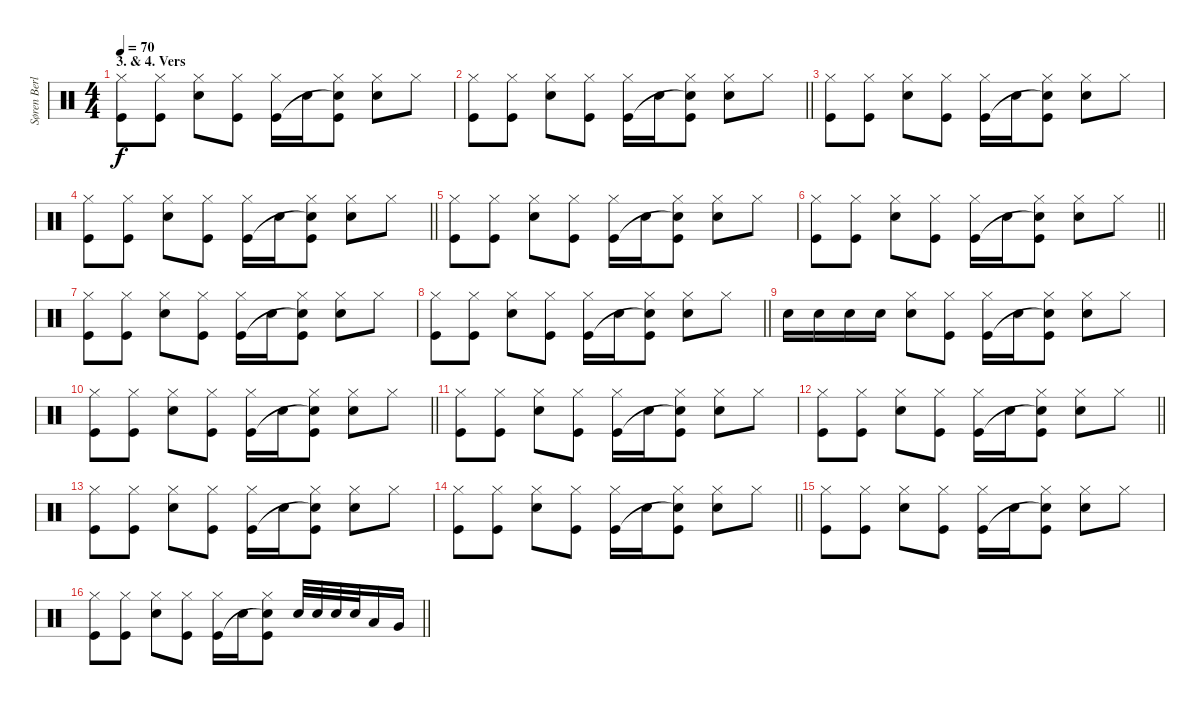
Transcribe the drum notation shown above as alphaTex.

\track ("Søren Berlev" "Søren Berl") {instrument percussion}
\staff {score}
\articulation defaults
\ts (4 4)
\section ("" "3. & 4. Vers")
\tempo 70
\clef neutral
\ks c
("Hi-Hat (closed)" "Kick (hit)").8{dy f} ("Hi-Hat (closed)" "Kick (hit)").8 ("Hi-Hat (closed)" "Snare (hit) 2").8 ("Hi-Hat (closed)" "Kick (hit)").8 ("Hi-Hat (closed)" "Kick (hit)").16 "Snare (hit) 2".16 ("Hi-Hat (closed)" "Snare (hit)"{t} "Kick (hit)").8 ("Hi-Hat (closed)" "Snare (hit) 2").8 "Hi-Hat (closed)".8 |
\barLineRight lightlight
("Hi-Hat (closed)" "Kick (hit)").8 ("Hi-Hat (closed)" "Kick (hit)").8 ("Hi-Hat (closed)" "Snare (hit) 2").8 ("Hi-Hat (closed)" "Kick (hit)").8 ("Hi-Hat (closed)" "Kick (hit)").16 "Snare (hit) 2".16 ("Hi-Hat (closed)" "Snare (hit)"{t} "Kick (hit)").8 ("Hi-Hat (closed)" "Snare (hit) 2").8 "Hi-Hat (closed)".8 |
("Hi-Hat (closed)" "Kick (hit)").8 ("Hi-Hat (closed)" "Kick (hit)").8 ("Hi-Hat (closed)" "Snare (hit) 2").8 ("Hi-Hat (closed)" "Kick (hit)").8 ("Hi-Hat (closed)" "Kick (hit)").16 "Snare (hit) 2".16 ("Hi-Hat (closed)" "Snare (hit)"{t} "Kick (hit)").8 ("Hi-Hat (closed)" "Snare (hit) 2").8 "Hi-Hat (closed)".8 |
\barLineRight lightlight
("Hi-Hat (closed)" "Kick (hit)").8 ("Hi-Hat (closed)" "Kick (hit)").8 ("Hi-Hat (closed)" "Snare (hit) 2").8 ("Hi-Hat (closed)" "Kick (hit)").8 ("Hi-Hat (closed)" "Kick (hit)").16 "Snare (hit) 2".16 ("Hi-Hat (closed)" "Snare (hit)"{t} "Kick (hit)").8 ("Hi-Hat (closed)" "Snare (hit) 2").8 "Hi-Hat (closed)".8 |
("Hi-Hat (closed)" "Kick (hit)").8 ("Hi-Hat (closed)" "Kick (hit)").8 ("Hi-Hat (closed)" "Snare (hit) 2").8 ("Hi-Hat (closed)" "Kick (hit)").8 ("Hi-Hat (closed)" "Kick (hit)").16 "Snare (hit) 2".16 ("Hi-Hat (closed)" "Snare (hit)"{t} "Kick (hit)").8 ("Hi-Hat (closed)" "Snare (hit) 2").8 "Hi-Hat (closed)".8 |
\barLineRight lightlight
("Hi-Hat (closed)" "Kick (hit)").8 ("Hi-Hat (closed)" "Kick (hit)").8 ("Hi-Hat (closed)" "Snare (hit) 2").8 ("Hi-Hat (closed)" "Kick (hit)").8 ("Hi-Hat (closed)" "Kick (hit)").16 "Snare (hit) 2".16 ("Hi-Hat (closed)" "Snare (hit)"{t} "Kick (hit)").8 ("Hi-Hat (closed)" "Snare (hit) 2").8 "Hi-Hat (closed)".8 |
("Hi-Hat (closed)" "Kick (hit)").8 ("Hi-Hat (closed)" "Kick (hit)").8 ("Hi-Hat (closed)" "Snare (hit) 2").8 ("Hi-Hat (closed)" "Kick (hit)").8 ("Hi-Hat (closed)" "Kick (hit)").16 "Snare (hit) 2".16 ("Hi-Hat (closed)" "Snare (hit)"{t} "Kick (hit)").8 ("Hi-Hat (closed)" "Snare (hit) 2").8 "Hi-Hat (closed)".8 |
\barLineRight lightlight
("Hi-Hat (closed)" "Kick (hit)").8 ("Hi-Hat (closed)" "Kick (hit)").8 ("Hi-Hat (closed)" "Snare (hit) 2").8 ("Hi-Hat (closed)" "Kick (hit)").8 ("Hi-Hat (closed)" "Kick (hit)").16 "Snare (hit) 2".16 ("Hi-Hat (closed)" "Snare (hit)"{t} "Kick (hit)").8 ("Hi-Hat (closed)" "Snare (hit) 2").8 "Hi-Hat (closed)".8 |
"Snare (hit) 2".16 "Snare (hit) 2".16 "Snare (hit) 2".16 "Snare (hit) 2".16 ("Hi-Hat (closed)" "Snare (hit) 2").8 ("Hi-Hat (closed)" "Kick (hit)").8 ("Hi-Hat (closed)" "Kick (hit)").16 "Snare (hit) 2".16 ("Hi-Hat (closed)" "Snare (hit)"{t} "Kick (hit)").8 ("Hi-Hat (closed)" "Snare (hit) 2").8 "Hi-Hat (closed)".8 |
\barLineRight lightlight
("Hi-Hat (closed)" "Kick (hit)").8 ("Hi-Hat (closed)" "Kick (hit)").8 ("Hi-Hat (closed)" "Snare (hit) 2").8 ("Hi-Hat (closed)" "Kick (hit)").8 ("Hi-Hat (closed)" "Kick (hit)").16 "Snare (hit) 2".16 ("Hi-Hat (closed)" "Snare (hit)"{t} "Kick (hit)").8 ("Hi-Hat (closed)" "Snare (hit) 2").8 "Hi-Hat (closed)".8 |
("Hi-Hat (closed)" "Kick (hit)").8 ("Hi-Hat (closed)" "Kick (hit)").8 ("Hi-Hat (closed)" "Snare (hit) 2").8 ("Hi-Hat (closed)" "Kick (hit)").8 ("Hi-Hat (closed)" "Kick (hit)").16 "Snare (hit) 2".16 ("Hi-Hat (closed)" "Snare (hit)"{t} "Kick (hit)").8 ("Hi-Hat (closed)" "Snare (hit) 2").8 "Hi-Hat (closed)".8 |
\barLineRight lightlight
("Hi-Hat (closed)" "Kick (hit)").8 ("Hi-Hat (closed)" "Kick (hit)").8 ("Hi-Hat (closed)" "Snare (hit) 2").8 ("Hi-Hat (closed)" "Kick (hit)").8 ("Hi-Hat (closed)" "Kick (hit)").16 "Snare (hit) 2".16 ("Hi-Hat (closed)" "Snare (hit)"{t} "Kick (hit)").8 ("Hi-Hat (closed)" "Snare (hit) 2").8 "Hi-Hat (closed)".8 |
("Hi-Hat (closed)" "Kick (hit)").8 ("Hi-Hat (closed)" "Kick (hit)").8 ("Hi-Hat (closed)" "Snare (hit) 2").8 ("Hi-Hat (closed)" "Kick (hit)").8 ("Hi-Hat (closed)" "Kick (hit)").16 "Snare (hit) 2".16 ("Hi-Hat (closed)" "Snare (hit)"{t} "Kick (hit)").8 ("Hi-Hat (closed)" "Snare (hit) 2").8 "Hi-Hat (closed)".8 |
\barLineRight lightlight
("Hi-Hat (closed)" "Kick (hit)").8 ("Hi-Hat (closed)" "Kick (hit)").8 ("Hi-Hat (closed)" "Snare (hit) 2").8 ("Hi-Hat (closed)" "Kick (hit)").8 ("Hi-Hat (closed)" "Kick (hit)").16 "Snare (hit) 2".16 ("Hi-Hat (closed)" "Snare (hit)"{t} "Kick (hit)").8 ("Hi-Hat (closed)" "Snare (hit) 2").8 "Hi-Hat (closed)".8 |
("Hi-Hat (closed)" "Kick (hit)").8 ("Hi-Hat (closed)" "Kick (hit)").8 ("Hi-Hat (closed)" "Snare (hit) 2").8 ("Hi-Hat (closed)" "Kick (hit)").8 ("Hi-Hat (closed)" "Kick (hit)").16 "Snare (hit) 2".16 ("Hi-Hat (closed)" "Snare (hit)"{t} "Kick (hit)").8 ("Hi-Hat (closed)" "Snare (hit) 2").8 "Hi-Hat (closed)".8 |
\barLineRight lightlight
("Hi-Hat (closed)" "Kick (hit)").8 ("Hi-Hat (closed)" "Kick (hit)").8 ("Hi-Hat (closed)" "Snare (hit) 2").8 ("Hi-Hat (closed)" "Kick (hit)").8 ("Hi-Hat (closed)" "Kick (hit)").16 "Snare (hit) 2".16 ("Hi-Hat (closed)" "Snare (hit)"{t} "Kick (hit)").8 "Snare (hit) 2".32 "Snare (hit) 2".32 "Snare (hit) 2".32 "Snare (hit) 2".32 "Low Tom (hit)".16 "Very Low Tom (hit)".16
